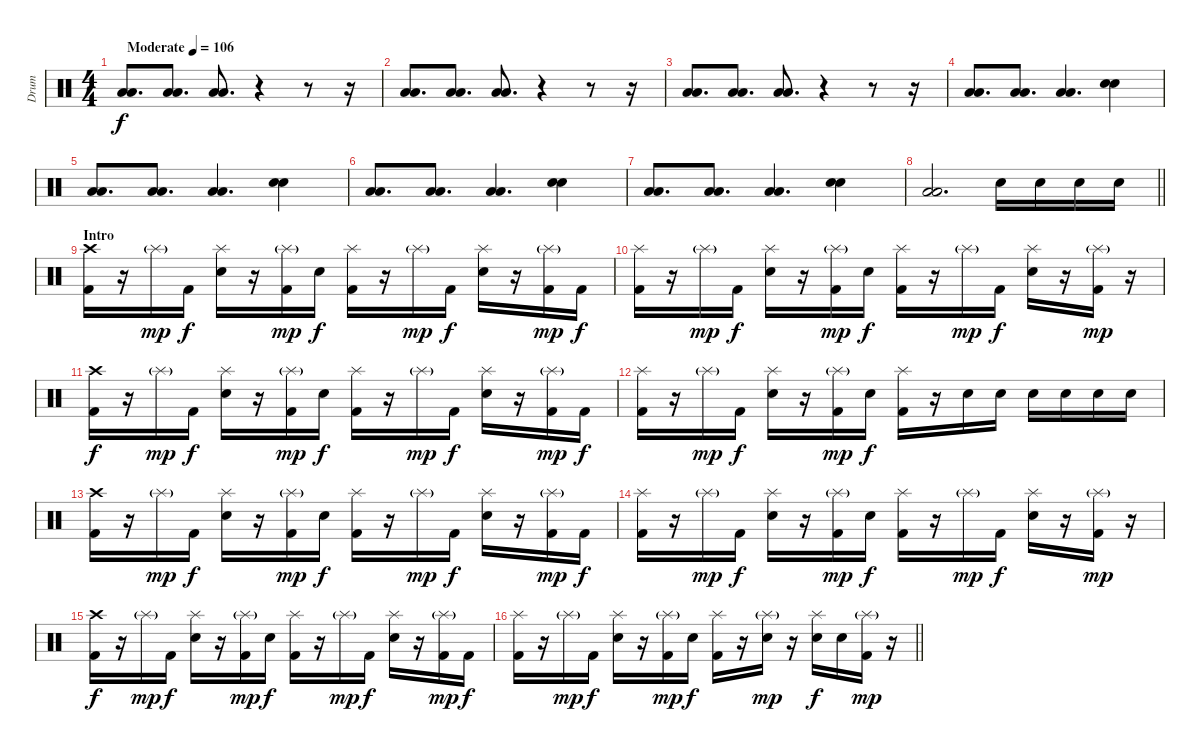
\track ("Drum" "Drum") {instrument percussion}
\staff {score}
\articulation defaults
\ts (4 4)
\tempo (106 "Moderate")
\clef neutral
\ks c
("Low Floor Tom (hit)" "Low Floor Tom (hit)").8{d bu 120 dy f} ("Low Floor Tom (hit)" "Low Floor Tom (hit)").8{d bu 120} ("Low Floor Tom (hit)" "Low Floor Tom (hit)").8{d bu 120} r.4 r.8 r.16 |
("Low Floor Tom (hit)" "Low Floor Tom (hit)").8{d bu 120} ("Low Floor Tom (hit)" "Low Floor Tom (hit)").8{d bu 120} ("Low Floor Tom (hit)" "Low Floor Tom (hit)").8{d bu 120} r.4 r.8 r.16 |
("Low Floor Tom (hit)" "Low Floor Tom (hit)").8{d bu 120} ("Low Floor Tom (hit)" "Low Floor Tom (hit)").8{d bu 120} ("Low Floor Tom (hit)" "Low Floor Tom (hit)").8{d bu 120} r.4 r.8 r.16 |
("Low Floor Tom (hit)" "Low Floor Tom (hit)").8{d bu 120} ("Low Floor Tom (hit)" "Low Floor Tom (hit)").8{d bu 120} ("Low Floor Tom (hit)" "Low Floor Tom (hit)").4{d bu 120} ("Electric Snare (hit)" "Electric Snare (hit)").4{bu 120} |
("Low Floor Tom (hit)" "Low Floor Tom (hit)").8{d bu 120} ("Low Floor Tom (hit)" "Low Floor Tom (hit)").8{d bu 120} ("Low Floor Tom (hit)" "Low Floor Tom (hit)").4{d bu 120} ("Electric Snare (hit)" "Electric Snare (hit)").4{bu 120} |
("Low Floor Tom (hit)" "Low Floor Tom (hit)").8{d bu 120} ("Low Floor Tom (hit)" "Low Floor Tom (hit)").8{d bu 120} ("Low Floor Tom (hit)" "Low Floor Tom (hit)").4{d bu 120} ("Electric Snare (hit)" "Electric Snare (hit)").4{bu 120} |
("Low Floor Tom (hit)" "Low Floor Tom (hit)").8{d bu 120} ("Low Floor Tom (hit)" "Low Floor Tom (hit)").8{d bu 120} ("Low Floor Tom (hit)" "Low Floor Tom (hit)").4{d bu 120} ("Electric Snare (hit)" "Electric Snare (hit)").4{bu 120} |
\barLineRight lightlight
("Low Floor Tom (hit)" "Low Floor Tom (hit)").2{d bu 120} "Electric Snare (hit)".16 "Electric Snare (hit)".16 "Electric Snare (hit)".16 "Electric Snare (hit)".16 |
\section ("" "Intro")
("Crash high (hit)" "Kick (hit) 2").16 r.16 "Splash (hit)"{g}.16{dy mp} "Kick (hit) 2".16{dy f} ("Splash (hit)" "Electric Snare (hit)").16 r.16 ("Splash (hit)"{g} "Kick (hit) 2").16{dy mp} "Electric Snare (hit)".16{dy f} ("Splash (hit)" "Kick (hit) 2").16 r.16 "Splash (hit)"{g}.16{dy mp} "Kick (hit) 2".16{dy f} ("Splash (hit)" "Electric Snare (hit)").16 r.16 ("Splash (hit)"{g} "Kick (hit) 2").16{dy mp} "Kick (hit) 2".16{dy f} |
("Splash (hit)" "Kick (hit) 2").16 r.16 "Splash (hit)"{g}.16{dy mp} "Kick (hit) 2".16{dy f} ("Splash (hit)" "Electric Snare (hit)").16 r.16 ("Splash (hit)"{g} "Kick (hit) 2").16{dy mp} "Electric Snare (hit)".16{dy f} ("Splash (hit)" "Kick (hit) 2").16 r.16 "Splash (hit)"{g}.16{dy mp} "Kick (hit) 2".16{dy f} ("Splash (hit)" "Electric Snare (hit)").16 r.16 ("Splash (hit)"{g} "Kick (hit) 2").16{dy mp} r.16 |
("Crash high (hit)" "Kick (hit) 2").16{dy f} r.16 "Splash (hit)"{g}.16{dy mp} "Kick (hit) 2".16{dy f} ("Splash (hit)" "Electric Snare (hit)").16 r.16 ("Splash (hit)"{g} "Kick (hit) 2").16{dy mp} "Electric Snare (hit)".16{dy f} ("Splash (hit)" "Kick (hit) 2").16 r.16 "Splash (hit)"{g}.16{dy mp} "Kick (hit) 2".16{dy f} ("Splash (hit)" "Electric Snare (hit)").16 r.16 ("Splash (hit)"{g} "Kick (hit) 2").16{dy mp} "Kick (hit) 2".16{dy f} |
("Splash (hit)" "Kick (hit) 2").16 r.16 "Splash (hit)"{g}.16{dy mp} "Kick (hit) 2".16{dy f} ("Splash (hit)" "Electric Snare (hit)").16 r.16 ("Splash (hit)"{g} "Kick (hit) 2").16{dy mp} "Electric Snare (hit)".16{dy f} ("Splash (hit)" "Kick (hit) 2").16 r.16 "Electric Snare (hit)".16 "Electric Snare (hit)".16 "Electric Snare (hit)".16 "Electric Snare (hit)".16 "Electric Snare (hit)".16 "Electric Snare (hit)".16 |
("Crash high (hit)" "Kick (hit) 2").16 r.16 "Splash (hit)"{g}.16{dy mp} "Kick (hit) 2".16{dy f} ("Splash (hit)" "Electric Snare (hit)").16 r.16 ("Splash (hit)"{g} "Kick (hit) 2").16{dy mp} "Electric Snare (hit)".16{dy f} ("Splash (hit)" "Kick (hit) 2").16 r.16 "Splash (hit)"{g}.16{dy mp} "Kick (hit) 2".16{dy f} ("Splash (hit)" "Electric Snare (hit)").16 r.16 ("Splash (hit)"{g} "Kick (hit) 2").16{dy mp} "Kick (hit) 2".16{dy f} |
("Splash (hit)" "Kick (hit) 2").16 r.16 "Splash (hit)"{g}.16{dy mp} "Kick (hit) 2".16{dy f} ("Splash (hit)" "Electric Snare (hit)").16 r.16 ("Splash (hit)"{g} "Kick (hit) 2").16{dy mp} "Electric Snare (hit)".16{dy f} ("Splash (hit)" "Kick (hit) 2").16 r.16 "Splash (hit)"{g}.16{dy mp} "Kick (hit) 2".16{dy f} ("Splash (hit)" "Electric Snare (hit)").16 r.16 ("Splash (hit)"{g} "Kick (hit) 2").16{dy mp} r.16 |
("Crash high (hit)" "Kick (hit) 2").16{dy f} r.16 "Splash (hit)"{g}.16{dy mp} "Kick (hit) 2".16{dy f} ("Splash (hit)" "Electric Snare (hit)").16 r.16 ("Splash (hit)"{g} "Kick (hit) 2").16{dy mp} "Electric Snare (hit)".16{dy f} ("Splash (hit)" "Kick (hit) 2").16 r.16 "Splash (hit)"{g}.16{dy mp} "Kick (hit) 2".16{dy f} ("Splash (hit)" "Electric Snare (hit)").16 r.16 ("Splash (hit)"{g} "Kick (hit) 2").16{dy mp} "Kick (hit) 2".16{dy f} |
\barLineRight lightlight
("Splash (hit)" "Kick (hit) 2").16 r.16 "Splash (hit)"{g}.16{dy mp} "Kick (hit) 2".16{dy f} ("Splash (hit)" "Electric Snare (hit)").16 r.16 ("Splash (hit)"{g} "Kick (hit) 2").16{dy mp} "Electric Snare (hit)".16{dy f} ("Splash (hit)" "Kick (hit) 2").16 r.16 ("Splash (hit)"{g} "Electric Snare (hit)").16{dy mp} r.16 ("Splash (hit)" "Electric Snare (hit)").16{dy f} "Electric Snare (hit)".16 ("Splash (hit)"{g} "Kick (hit) 2").16{dy mp} r.16
